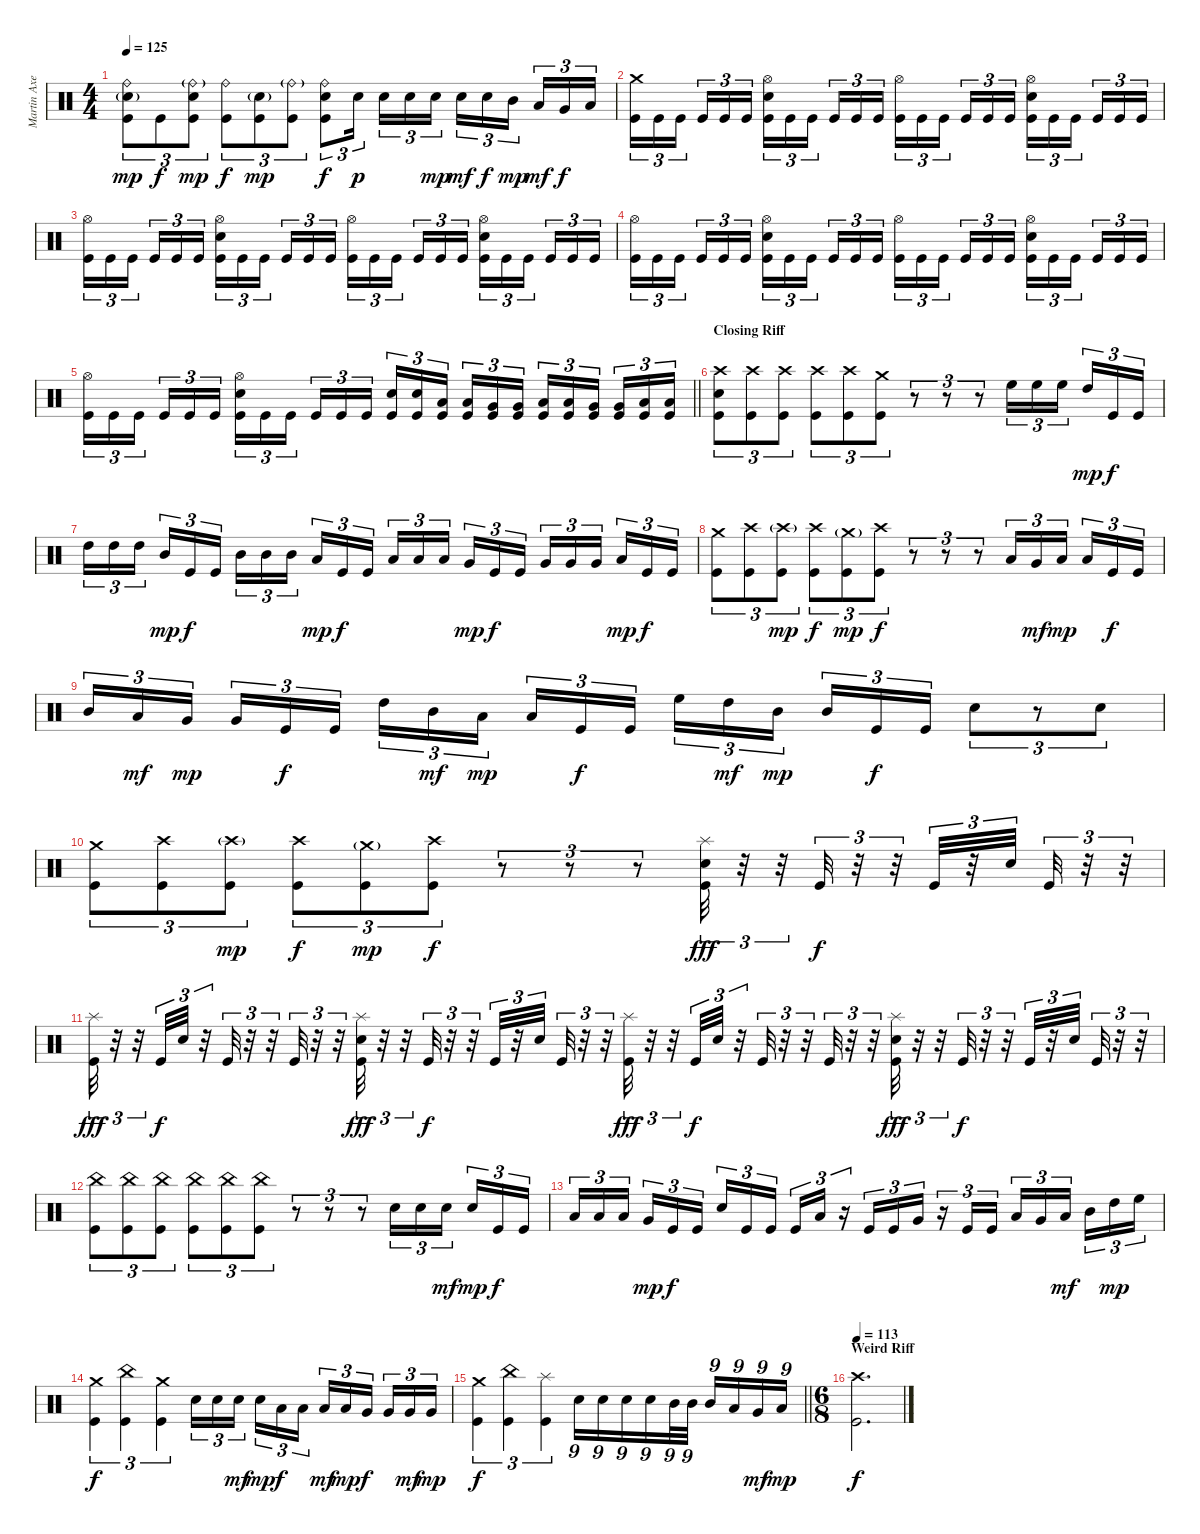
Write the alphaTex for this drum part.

\track ("Martin Axenrot" "Martin Axe") {instrument percussion}
\staff {score}
\articulation defaults
\ts (4 4)
\tempo 125
\clef neutral
\ks c
("Ride (bell)" "Snare (hit) 2"{g} "Kick (hit)").8{tu (3 2) dy mp} "Kick (hit)".8{tu (3 2) dy f} ("Ride (bell)"{g} "Snare (hit) 2" "Kick (hit)").8{tu (3 2) dy mp} ("Ride (bell)" "Kick (hit)").8{tu (3 2) dy f} ("Snare (hit) 2"{g} "Kick (hit)").8{tu (3 2) dy mp} ("Ride (bell)"{g} "Kick (hit)").8{tu (3 2)} ("Ride (bell)" "Snare (hit) 2" "Kick (hit)").8{tu (3 2) dy f} "Snare (hit) 2".16{tu (3 2) dy p beam splitsecondary} "Snare (hit) 2".16{tu (3 2)} "Snare (hit) 2".16{tu (3 2)} "Snare (hit) 2".16{tu (3 2) dy mp} "Snare (hit) 2".16{tu (3 2) dy mf} "Snare (hit) 2".16{tu (3 2) dy f} "Mid Tom (hit)".16{tu (3 2) dy mp beam splitsecondary} "Low Tom (hit)".16{tu (3 2) dy mf} "Very Low Tom (hit)".16{tu (3 2) dy f} "Low Floor Tom (hit)".16{tu (3 2)} |
("Crash medium (hit)" "Kick (hit)").16{tu (3 2)} "Kick (hit)".16{tu (3 2)} "Kick (hit)".16{tu (3 2) beam splitsecondary} "Kick (hit)".16{tu (3 2)} "Kick (hit)".16{tu (3 2)} "Kick (hit)".16{tu (3 2)} ("Hi-Hat (open)" "Snare (hit) 2" "Kick (hit)").16{tu (3 2)} "Kick (hit)".16{tu (3 2)} "Kick (hit)".16{tu (3 2) beam splitsecondary} "Kick (hit)".16{tu (3 2)} "Kick (hit)".16{tu (3 2)} "Kick (hit)".16{tu (3 2)} ("Hi-Hat (open)" "Kick (hit)").16{tu (3 2)} "Kick (hit)".16{tu (3 2)} "Kick (hit)".16{tu (3 2) beam splitsecondary} "Kick (hit)".16{tu (3 2)} "Kick (hit)".16{tu (3 2)} "Kick (hit)".16{tu (3 2)} ("Hi-Hat (open)" "Snare (hit) 2" "Kick (hit)").16{tu (3 2)} "Kick (hit)".16{tu (3 2)} "Kick (hit)".16{tu (3 2) beam splitsecondary} "Kick (hit)".16{tu (3 2)} "Kick (hit)".16{tu (3 2)} "Kick (hit)".16{tu (3 2)} |
("Hi-Hat (open)" "Kick (hit)").16{tu (3 2)} "Kick (hit)".16{tu (3 2)} "Kick (hit)".16{tu (3 2) beam splitsecondary} "Kick (hit)".16{tu (3 2)} "Kick (hit)".16{tu (3 2)} "Kick (hit)".16{tu (3 2)} ("Hi-Hat (open)" "Snare (hit) 2" "Kick (hit)").16{tu (3 2)} "Kick (hit)".16{tu (3 2)} "Kick (hit)".16{tu (3 2) beam splitsecondary} "Kick (hit)".16{tu (3 2)} "Kick (hit)".16{tu (3 2)} "Kick (hit)".16{tu (3 2)} ("Hi-Hat (open)" "Kick (hit)").16{tu (3 2)} "Kick (hit)".16{tu (3 2)} "Kick (hit)".16{tu (3 2) beam splitsecondary} "Kick (hit)".16{tu (3 2)} "Kick (hit)".16{tu (3 2)} "Kick (hit)".16{tu (3 2)} ("Hi-Hat (open)" "Snare (hit) 2" "Kick (hit)").16{tu (3 2)} "Kick (hit)".16{tu (3 2)} "Kick (hit)".16{tu (3 2) beam splitsecondary} "Kick (hit)".16{tu (3 2)} "Kick (hit)".16{tu (3 2)} "Kick (hit)".16{tu (3 2)} |
("Hi-Hat (open)" "Kick (hit)").16{tu (3 2)} "Kick (hit)".16{tu (3 2)} "Kick (hit)".16{tu (3 2) beam splitsecondary} "Kick (hit)".16{tu (3 2)} "Kick (hit)".16{tu (3 2)} "Kick (hit)".16{tu (3 2)} ("Hi-Hat (open)" "Snare (hit) 2" "Kick (hit)").16{tu (3 2)} "Kick (hit)".16{tu (3 2)} "Kick (hit)".16{tu (3 2) beam splitsecondary} "Kick (hit)".16{tu (3 2)} "Kick (hit)".16{tu (3 2)} "Kick (hit)".16{tu (3 2)} ("Hi-Hat (open)" "Kick (hit)").16{tu (3 2)} "Kick (hit)".16{tu (3 2)} "Kick (hit)".16{tu (3 2) beam splitsecondary} "Kick (hit)".16{tu (3 2)} "Kick (hit)".16{tu (3 2)} "Kick (hit)".16{tu (3 2)} ("Hi-Hat (open)" "Snare (hit) 2" "Kick (hit)").16{tu (3 2)} "Kick (hit)".16{tu (3 2)} "Kick (hit)".16{tu (3 2) beam splitsecondary} "Kick (hit)".16{tu (3 2)} "Kick (hit)".16{tu (3 2)} "Kick (hit)".16{tu (3 2)} |
\barLineRight lightlight
("Hi-Hat (open)" "Kick (hit)").16{tu (3 2)} "Kick (hit)".16{tu (3 2)} "Kick (hit)".16{tu (3 2) beam splitsecondary} "Kick (hit)".16{tu (3 2)} "Kick (hit)".16{tu (3 2)} "Kick (hit)".16{tu (3 2)} ("Hi-Hat (open)" "Snare (hit) 2" "Kick (hit)").16{tu (3 2)} "Kick (hit)".16{tu (3 2)} "Kick (hit)".16{tu (3 2) beam splitsecondary} "Kick (hit)".16{tu (3 2)} "Kick (hit)".16{tu (3 2)} "Kick (hit)".16{tu (3 2)} ("Snare (hit) 2" "Kick (hit)").16{tu (3 2)} ("Snare (hit) 2" "Kick (hit)").16{tu (3 2)} ("Low Tom (hit)" "Kick (hit)").16{tu (3 2) beam splitsecondary} ("Low Tom (hit)" "Kick (hit)").16{tu (3 2)} ("Very Low Tom (hit)" "Kick (hit)").16{tu (3 2)} ("Very Low Tom (hit)" "Kick (hit)").16{tu (3 2)} ("Low Floor Tom (hit)" "Kick (hit)").16{tu (3 2)} ("Low Floor Tom (hit)" "Kick (hit)").16{tu (3 2)} ("Very Low Tom (hit)" "Kick (hit)").16{tu (3 2) beam splitsecondary} ("Very Low Tom (hit)" "Kick (hit)").16{tu (3 2)} ("Low Tom (hit)" "Kick (hit)").16{tu (3 2)} ("Low Tom (hit)" "Kick (hit)").16{tu (3 2)} |
\section ("" "Closing Riff")
("Crash high (hit)" "Snare (hit) 2" "Kick (hit)").8{tu (3 2)} ("Crash high (hit)" "Kick (hit)").8{tu (3 2)} ("Crash high (hit)" "Kick (hit)").8{tu (3 2)} ("Crash high (hit)" "Kick (hit)").8{tu (3 2)} ("Crash high (hit)" "Kick (hit)").8{tu (3 2)} ("Crash medium (hit)" "Kick (hit)").8{tu (3 2)} r.8{tu (3 2)} r.8{tu (3 2)} r.8{tu (3 2)} "High Floor Tom (hit)".16{tu (3 2)} "High Floor Tom (hit)".16{tu (3 2)} "High Floor Tom (hit)".16{tu (3 2) beam splitsecondary} "High Tom (hit)".16{tu (3 2) dy mp} "Kick (hit)".16{tu (3 2) dy f} "Kick (hit)".16{tu (3 2)} |
"High Tom (hit)".16{tu (3 2)} "High Tom (hit)".16{tu (3 2)} "High Tom (hit)".16{tu (3 2) beam splitsecondary} "Mid Tom (hit)".16{tu (3 2) dy mp} "Kick (hit)".16{tu (3 2) dy f} "Kick (hit)".16{tu (3 2)} "Mid Tom (hit)".16{tu (3 2)} "Mid Tom (hit)".16{tu (3 2)} "Mid Tom (hit)".16{tu (3 2) beam splitsecondary} "Low Tom (hit)".16{tu (3 2) dy mp} "Kick (hit)".16{tu (3 2) dy f} "Kick (hit)".16{tu (3 2)} "Low Tom (hit)".16{tu (3 2)} "Low Tom (hit)".16{tu (3 2)} "Low Tom (hit)".16{tu (3 2) beam splitsecondary} "Very Low Tom (hit)".16{tu (3 2) dy mp} "Kick (hit)".16{tu (3 2) dy f} "Kick (hit)".16{tu (3 2)} "Very Low Tom (hit)".16{tu (3 2)} "Very Low Tom (hit)".16{tu (3 2)} "Very Low Tom (hit)".16{tu (3 2) beam splitsecondary} "Low Floor Tom (hit)".16{tu (3 2) dy mp} "Kick (hit)".16{tu (3 2) dy f} "Kick (hit)".16{tu (3 2)} |
("Crash medium (hit)" "Kick (hit)").8{tu (3 2)} ("Crash high (hit)" "Kick (hit)").8{tu (3 2)} ("Crash high (hit)"{g} "Kick (hit)").8{tu (3 2) dy mp} ("Crash high (hit)" "Kick (hit)").8{tu (3 2) dy f} ("Crash medium (hit)"{g} "Kick (hit)").8{tu (3 2) dy mp} ("Crash high (hit)" "Kick (hit)").8{tu (3 2) dy f} r.8{tu (3 2)} r.8{tu (3 2)} r.8{tu (3 2)} "Low Tom (hit)".16{tu (3 2)} "Very Low Tom (hit)".16{tu (3 2) dy mf} "Low Floor Tom (hit)".16{tu (3 2) dy mp beam splitsecondary} "Low Floor Tom (hit)".16{tu (3 2)} "Kick (hit)".16{tu (3 2) dy f} "Kick (hit)".16{tu (3 2)} |
"Mid Tom (hit)".16{tu (3 2)} "Low Tom (hit)".16{tu (3 2) dy mf} "Very Low Tom (hit)".16{tu (3 2) dy mp beam splitsecondary} "Very Low Tom (hit)".16{tu (3 2)} "Kick (hit)".16{tu (3 2) dy f} "Kick (hit)".16{tu (3 2)} "High Tom (hit)".16{tu (3 2)} "Mid Tom (hit)".16{tu (3 2) dy mf} "Low Tom (hit)".16{tu (3 2) dy mp beam splitsecondary} "Low Tom (hit)".16{tu (3 2)} "Kick (hit)".16{tu (3 2) dy f} "Kick (hit)".16{tu (3 2)} "High Floor Tom (hit)".16{tu (3 2)} "High Tom (hit)".16{tu (3 2) dy mf} "Mid Tom (hit)".16{tu (3 2) dy mp beam splitsecondary} "Mid Tom (hit)".16{tu (3 2)} "Kick (hit)".16{tu (3 2) dy f} "Kick (hit)".16{tu (3 2)} "Snare (hit) 2".8{tu (3 2)} r.8{tu (3 2)} "Snare (hit) 2".8{tu (3 2)} |
("Crash medium (hit)" "Kick (hit)").8{tu (3 2)} ("Crash high (hit)" "Kick (hit)").8{tu (3 2)} ("Crash high (hit)"{g} "Kick (hit)").8{tu (3 2) dy mp} ("Crash high (hit)" "Kick (hit)").8{tu (3 2) dy f} ("Crash medium (hit)"{g} "Kick (hit)").8{tu (3 2) dy mp} ("Crash high (hit)" "Kick (hit)").8{tu (3 2) dy f} r.8{tu (3 2)} r.8{tu (3 2)} r.8{tu (3 2)} ("Splash (hit)" "Snare (hit) 2" "Kick (hit)").32{tu (3 2) dy fff} r.32{tu (3 2)} r.32{tu (3 2)} "Kick (hit)".32{tu (3 2) dy f} r.32{tu (3 2)} r.32{tu (3 2)} "Kick (hit)".32{tu (3 2)} r.32{tu (3 2)} "Snare (hit) 2".32{tu (3 2)} "Kick (hit)".32{tu (3 2)} r.32{tu (3 2)} r.32{tu (3 2)} |
("Splash (hit)" "Kick (hit)").32{tu (3 2) dy fff} r.32{tu (3 2)} r.32{tu (3 2)} "Kick (hit)".32{tu (3 2) dy f} "Snare (hit) 2".32{tu (3 2)} r.32{tu (3 2)} "Kick (hit)".32{tu (3 2)} r.32{tu (3 2)} r.32{tu (3 2)} "Kick (hit)".32{tu (3 2)} r.32{tu (3 2)} r.32{tu (3 2)} ("Splash (hit)" "Snare (hit) 2" "Kick (hit)").32{tu (3 2) dy fff} r.32{tu (3 2)} r.32{tu (3 2)} "Kick (hit)".32{tu (3 2) dy f} r.32{tu (3 2)} r.32{tu (3 2)} "Kick (hit)".32{tu (3 2)} r.32{tu (3 2)} "Snare (hit) 2".32{tu (3 2)} "Kick (hit)".32{tu (3 2)} r.32{tu (3 2)} r.32{tu (3 2)} ("Splash (hit)" "Kick (hit)").32{tu (3 2) dy fff} r.32{tu (3 2)} r.32{tu (3 2)} "Kick (hit)".32{tu (3 2) dy f} "Snare (hit) 2".32{tu (3 2)} r.32{tu (3 2)} "Kick (hit)".32{tu (3 2)} r.32{tu (3 2)} r.32{tu (3 2)} "Kick (hit)".32{tu (3 2)} r.32{tu (3 2)} r.32{tu (3 2)} ("Splash (hit)" "Snare (hit) 2" "Kick (hit)").32{tu (3 2) dy fff} r.32{tu (3 2)} r.32{tu (3 2)} "Kick (hit)".32{tu (3 2) dy f} r.32{tu (3 2)} r.32{tu (3 2)} "Kick (hit)".32{tu (3 2)} r.32{tu (3 2)} "Snare (hit) 2".32{tu (3 2)} "Kick (hit)".32{tu (3 2)} r.32{tu (3 2)} r.32{tu (3 2)} |
("China (hit)" "Kick (hit)").8{tu (3 2)} ("China (hit)" "Kick (hit)").8{tu (3 2)} ("China (hit)" "Kick (hit)").8{tu (3 2)} ("China (hit)" "Kick (hit)").8{tu (3 2)} ("China (hit)" "Kick (hit)").8{tu (3 2)} ("China (hit)" "Kick (hit)").8{tu (3 2)} r.8{tu (3 2)} r.8{tu (3 2)} r.8{tu (3 2)} "Snare (hit) 2".16{tu (3 2)} "Snare (hit) 2".16{tu (3 2)} "Snare (hit) 2".16{tu (3 2) dy mf beam splitsecondary} "Snare (hit) 2".16{tu (3 2) dy mp} "Kick (hit)".16{tu (3 2) dy f} "Kick (hit)".16{tu (3 2)} |
"Low Tom (hit)".16{tu (3 2)} "Low Tom (hit)".16{tu (3 2)} "Low Tom (hit)".16{tu (3 2) beam splitsecondary} "Very Low Tom (hit)".16{tu (3 2) dy mp} "Kick (hit)".16{tu (3 2) dy f} "Kick (hit)".16{tu (3 2)} "Snare (hit) 2".16{tu (3 2)} "Kick (hit)".16{tu (3 2)} "Kick (hit)".16{tu (3 2) beam splitsecondary} "Kick (hit)".16{tu (3 2)} "Low Tom (hit)".16{tu (3 2)} r.16{tu (3 2)} "Kick (hit)".16{tu (3 2)} "Kick (hit)".16{tu (3 2)} "Very Low Tom (hit)".16{tu (3 2)} r.16{tu (3 2)} "Kick (hit)".16{tu (3 2)} "Kick (hit)".16{tu (3 2)} "Low Floor Tom (hit)".16{tu (3 2)} "Very Low Tom (hit)".16{tu (3 2)} "Low Tom (hit)".16{tu (3 2) dy mf beam splitsecondary} "Mid Tom (hit)".16{tu (3 2)} "High Tom (hit)".16{tu (3 2) dy mp} "High Floor Tom (hit)".16{tu (3 2)} |
("Crash medium (hit)" "Kick (hit)").4{tu (3 2) dy f} ("China (hit)" "Kick (hit)").4{tu (3 2)} ("Crash medium (hit)" "Kick (hit)").4{tu (3 2)} "Snare (hit) 2".16{tu (3 2)} "Snare (hit) 2".16{tu (3 2)} "Snare (hit) 2".16{tu (3 2) dy mf beam splitsecondary} "Snare (hit) 2".16{tu (3 2) dy mp} "Low Tom (hit)".16{tu (3 2) dy f} "Low Tom (hit)".16{tu (3 2)} "Low Tom (hit)".16{tu (3 2) dy mf} "Low Tom (hit)".16{tu (3 2) dy mp} "Very Low Tom (hit)".16{tu (3 2) dy f beam splitsecondary} "Very Low Tom (hit)".16{tu (3 2)} "Very Low Tom (hit)".16{tu (3 2) dy mf} "Very Low Tom (hit)".16{tu (3 2) dy mp} |
\barLineRight lightlight
("Crash medium (hit)" "Kick (hit)").4{tu (3 2) dy f} ("China (hit)" "Kick (hit)").4{tu (3 2)} ("Splash (hit)" "Kick (hit)").4{tu (3 2)} "Snare (hit) 2".16{tu (9 8)} "Snare (hit) 2".16{tu (9 8)} "Snare (hit) 2".16{tu (9 8)} "Snare (hit) 2".16{tu (9 8)} "Mid Tom (hit)".32{tu (9 8)} "Mid Tom (hit)".32{tu (9 8)} "Mid Tom (hit)".16{tu (9 8)} "Low Tom (hit)".16{tu (9 8)} "Very Low Tom (hit)".16{tu (9 8) dy mf} "Low Floor Tom (hit)".16{tu (9 8) dy mp} |
\ts (6 8)
\section ("" "Weird Riff")
\tempo 113
("Crash high (hit)" "Kick (hit)").2{d dy f}
